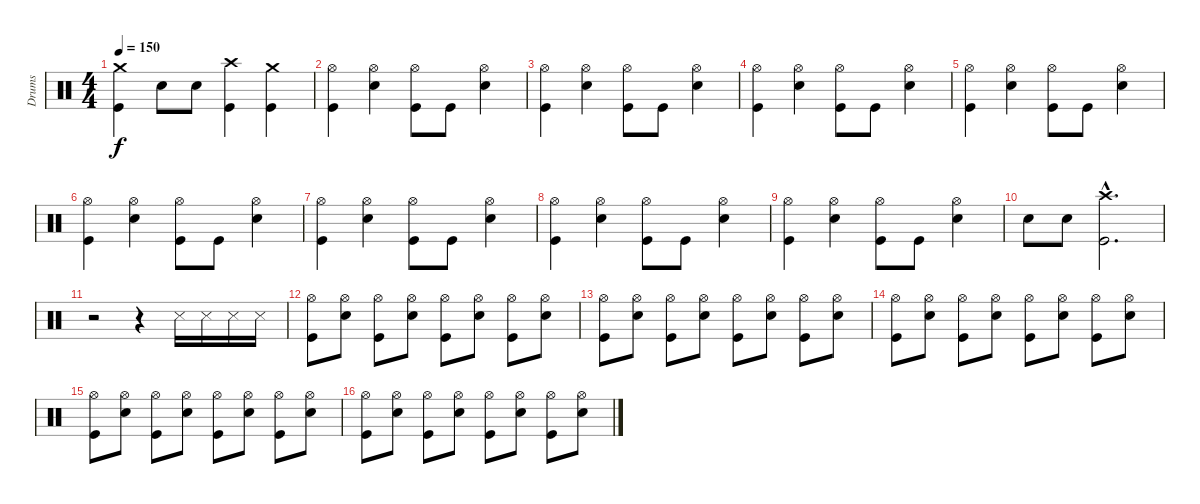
\track ("Drums" "Drums") {instrument percussion}
\staff {score}
\articulation defaults
\ts (4 4)
\tempo 150
\clef neutral
\ks c
("Crash medium (hit)" "Kick (hit)").4{dy f} "Snare (hit) 2".8 "Snare (hit) 2".8 ("Crash high (hit)" "Kick (hit)").4 ("Crash medium (hit)" "Kick (hit)").4 |
("Hi-Hat (open)" "Kick (hit)").4 ("Hi-Hat (open)" "Snare (hit) 2").4 ("Hi-Hat (open)" "Kick (hit)").8 "Kick (hit)".8 ("Hi-Hat (open)" "Snare (hit) 2").4 |
("Hi-Hat (open)" "Kick (hit)").4 ("Hi-Hat (open)" "Snare (hit) 2").4 ("Hi-Hat (open)" "Kick (hit)").8 "Kick (hit)".8 ("Hi-Hat (open)" "Snare (hit) 2").4 |
("Hi-Hat (open)" "Kick (hit)").4 ("Hi-Hat (open)" "Snare (hit) 2").4 ("Hi-Hat (open)" "Kick (hit)").8 "Kick (hit)".8 ("Hi-Hat (open)" "Snare (hit) 2").4 |
("Hi-Hat (open)" "Kick (hit)").4 ("Hi-Hat (open)" "Snare (hit) 2").4 ("Hi-Hat (open)" "Kick (hit)").8 "Kick (hit)".8 ("Hi-Hat (open)" "Snare (hit) 2").4 |
("Hi-Hat (open)" "Kick (hit)").4 ("Hi-Hat (open)" "Snare (hit) 2").4 ("Hi-Hat (open)" "Kick (hit)").8 "Kick (hit)".8 ("Hi-Hat (open)" "Snare (hit) 2").4 |
("Hi-Hat (open)" "Kick (hit)").4 ("Hi-Hat (open)" "Snare (hit) 2").4 ("Hi-Hat (open)" "Kick (hit)").8 "Kick (hit)".8 ("Hi-Hat (open)" "Snare (hit) 2").4 |
("Hi-Hat (open)" "Kick (hit)").4 ("Hi-Hat (open)" "Snare (hit) 2").4 ("Hi-Hat (open)" "Kick (hit)").8 "Kick (hit)".8 ("Hi-Hat (open)" "Snare (hit) 2").4 |
("Hi-Hat (open)" "Kick (hit)").4 ("Hi-Hat (open)" "Snare (hit) 2").4 ("Hi-Hat (open)" "Kick (hit)").8 "Kick (hit)".8 ("Hi-Hat (open)" "Snare (hit) 2").4 |
"Snare (hit) 2".8 "Snare (hit) 2".8 ("Crash high (hit)"{hac} "Kick (hit)"{hac}).2{d} |
r.2 r.4 "Snare (side stick) 3".16 "Snare (side stick) 3".16 "Snare (side stick) 3".16 "Snare (side stick) 3".16 |
("Hi-Hat (open)" "Kick (hit)").8 ("Hi-Hat (open)" "Snare (hit) 2").8 ("Hi-Hat (open)" "Kick (hit)").8 ("Hi-Hat (open)" "Snare (hit) 2").8 ("Hi-Hat (open)" "Kick (hit)").8 ("Hi-Hat (open)" "Snare (hit) 2").8 ("Hi-Hat (open)" "Kick (hit)").8 ("Hi-Hat (open)" "Snare (hit) 2").8 |
("Hi-Hat (open)" "Kick (hit)").8 ("Hi-Hat (open)" "Snare (hit) 2").8 ("Hi-Hat (open)" "Kick (hit)").8 ("Hi-Hat (open)" "Snare (hit) 2").8 ("Hi-Hat (open)" "Kick (hit)").8 ("Hi-Hat (open)" "Snare (hit) 2").8 ("Hi-Hat (open)" "Kick (hit)").8 ("Hi-Hat (open)" "Snare (hit) 2").8 |
("Hi-Hat (open)" "Kick (hit)").8 ("Hi-Hat (open)" "Snare (hit) 2").8 ("Hi-Hat (open)" "Kick (hit)").8 ("Hi-Hat (open)" "Snare (hit) 2").8 ("Hi-Hat (open)" "Kick (hit)").8 ("Hi-Hat (open)" "Snare (hit) 2").8 ("Hi-Hat (open)" "Kick (hit)").8 ("Hi-Hat (open)" "Snare (hit) 2").8 |
("Hi-Hat (open)" "Kick (hit)").8 ("Hi-Hat (open)" "Snare (hit) 2").8 ("Hi-Hat (open)" "Kick (hit)").8 ("Hi-Hat (open)" "Snare (hit) 2").8 ("Hi-Hat (open)" "Kick (hit)").8 ("Hi-Hat (open)" "Snare (hit) 2").8 ("Hi-Hat (open)" "Kick (hit)").8 ("Hi-Hat (open)" "Snare (hit) 2").8 |
("Hi-Hat (open)" "Kick (hit)").8 ("Hi-Hat (open)" "Snare (hit) 2").8 ("Hi-Hat (open)" "Kick (hit)").8 ("Hi-Hat (open)" "Snare (hit) 2").8 ("Hi-Hat (open)" "Kick (hit)").8 ("Hi-Hat (open)" "Snare (hit) 2").8 ("Hi-Hat (open)" "Kick (hit)").8 ("Hi-Hat (open)" "Snare (hit) 2").8
